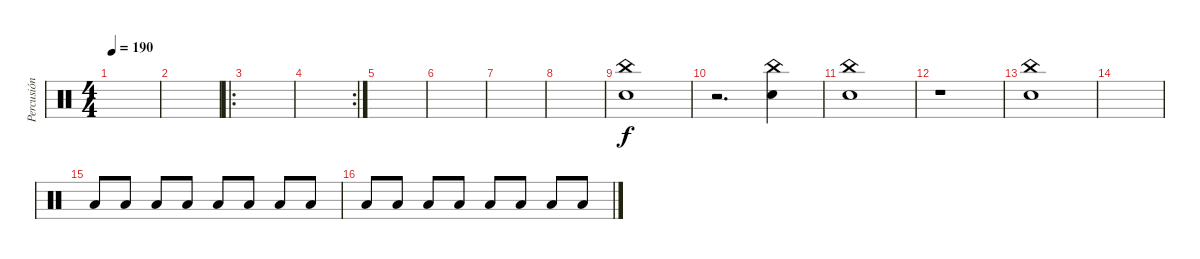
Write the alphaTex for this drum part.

\track ("Percusión" "Percusión") {instrument percussion}
\staff {score}
\articulation defaults
\ts (4 4)
\tempo 190
\clef neutral
\ks c
|
|
\ro
|
\rc 2
|
|
|
|
|
("Snare (hit) 2" "China (hit)").1{volume 13} |
r.2{d} ("Snare (hit) 2" "China (hit)").4 |
("Snare (hit) 2" "China (hit)").1 |
r.1 |
("Snare (hit) 2" "China (hit)").1 |
|
"Low Tom (hit)".8{volume 13} "Low Tom (hit)".8 "Low Tom (hit)".8 "Low Tom (hit)".8 "Low Tom (hit)".8 "Low Tom (hit)".8 "Low Tom (hit)".8 "Low Tom (hit)".8 |
"Low Tom (hit)".8 "Low Tom (hit)".8 "Low Tom (hit)".8 "Low Tom (hit)".8 "Low Tom (hit)".8 "Low Tom (hit)".8 "Low Tom (hit)".8 "Low Tom (hit)".8
